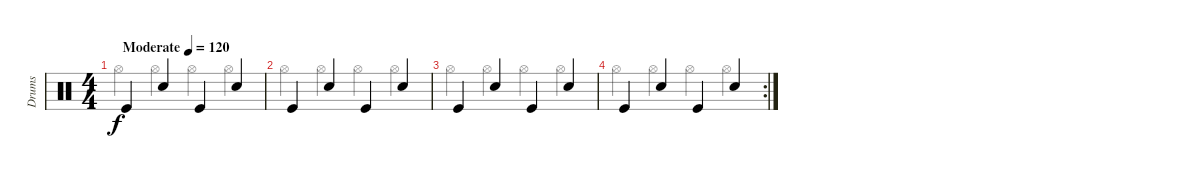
\track ("Drums" "Drums") {instrument percussion}
\staff {score}
\articulation defaults
\voice
\ts (4 4)
\tempo (120 "Moderate")
\clef neutral
\ks c "Kick (hit)".4{dy f} "Snare (hit) 2".4 "Kick (hit)".4 "Snare (hit) 2".4
|
"Kick (hit)".4 "Snare (hit) 2".4 "Kick (hit)".4 "Snare (hit) 2".4 |
"Kick (hit)".4 "Snare (hit) 2".4 "Kick (hit)".4 "Snare (hit) 2".4 |
\rc 2 "Kick (hit)".4 "Snare (hit) 2".4 "Kick (hit)".4 "Snare (hit) 2".4
\voice
\clef neutral
\ottava regular
\simile none
\ks c "Hi-Hat (open)".4{dy f} "Hi-Hat (open)".4 "Hi-Hat (open)".4 "Hi-Hat (open)".4
|
"Hi-Hat (open)".4 "Hi-Hat (open)".4 "Hi-Hat (open)".4 "Hi-Hat (open)".4 |
"Hi-Hat (open)".4 "Hi-Hat (open)".4 "Hi-Hat (open)".4 "Hi-Hat (open)".4 |
"Hi-Hat (open)".4 "Hi-Hat (open)".4 "Hi-Hat (open)".4 "Hi-Hat (open)".4
